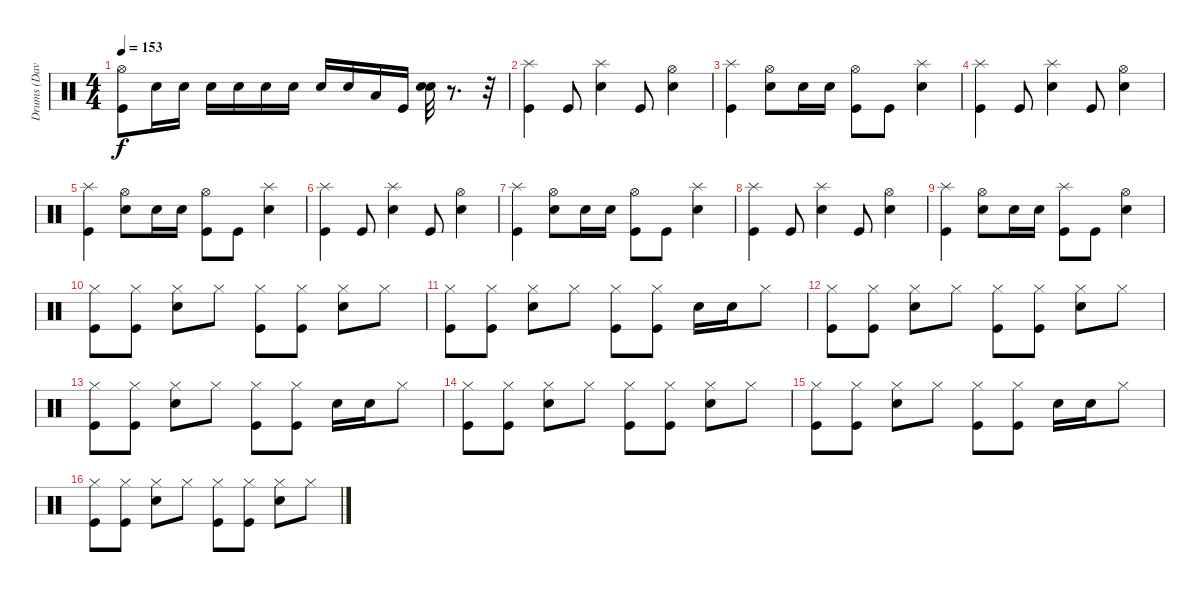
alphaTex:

\track ("Drums (Dave)" "Drums (Dav") {instrument percussion}
\staff {score}
\articulation defaults
\ts (4 4)
\tempo 153
\clef neutral
\ks c
("Hi-Hat (open)" "Kick (hit)").8{dy f} "Snare (hit) 2".16 "Snare (hit) 2".16 "Snare (hit) 2".16 "Snare (hit) 2".16 "Snare (hit) 2".16 "Snare (hit) 2".16 "Snare (hit) 2".16 "Snare (hit) 2".16 "Low Tom (hit)".16 "Kick (hit)".16 ("Snare (hit) 2" "Snare (hit) 2").32 r.8{d} r.32 |
("Splash (hit)" "Kick (hit)").4 "Kick (hit)".8 ("Splash (hit)" "Snare (hit) 2").4 "Kick (hit)".8 ("Hi-Hat (open)" "Snare (hit) 2").4 |
("Splash (hit)" "Kick (hit)").4 ("Hi-Hat (open)" "Snare (hit) 2").8 "Snare (hit) 2".16 "Snare (hit) 2".16 ("Hi-Hat (open)" "Kick (hit)").8 "Kick (hit)".8 ("Splash (hit)" "Snare (hit) 2").4 |
("Splash (hit)" "Kick (hit)").4 "Kick (hit)".8 ("Splash (hit)" "Snare (hit) 2").4 "Kick (hit)".8 ("Hi-Hat (open)" "Snare (hit) 2").4 |
("Splash (hit)" "Kick (hit)").4 ("Hi-Hat (open)" "Snare (hit) 2").8 "Snare (hit) 2".16 "Snare (hit) 2".16 ("Hi-Hat (open)" "Kick (hit)").8 "Kick (hit)".8 ("Splash (hit)" "Snare (hit) 2").4 |
("Splash (hit)" "Kick (hit)").4 "Kick (hit)".8 ("Splash (hit)" "Snare (hit) 2").4 "Kick (hit)".8 ("Hi-Hat (open)" "Snare (hit) 2").4 |
("Splash (hit)" "Kick (hit)").4 ("Hi-Hat (open)" "Snare (hit) 2").8 "Snare (hit) 2".16 "Snare (hit) 2".16 ("Hi-Hat (open)" "Kick (hit)").8 "Kick (hit)".8 ("Splash (hit)" "Snare (hit) 2").4 |
("Splash (hit)" "Kick (hit)").4 "Kick (hit)".8 ("Splash (hit)" "Snare (hit) 2").4 "Kick (hit)".8 ("Hi-Hat (open)" "Snare (hit) 2").4 |
("Splash (hit)" "Kick (hit)").4 ("Hi-Hat (open)" "Snare (hit) 2").8 "Snare (hit) 2".16 "Snare (hit) 2".16 ("Splash (hit)" "Kick (hit)").8 "Kick (hit)".8 ("Hi-Hat (open)" "Snare (hit) 2").4 |
("Hi-Hat (closed)" "Kick (hit)").8 ("Hi-Hat (closed)" "Kick (hit)").8 ("Hi-Hat (closed)" "Snare (hit) 2").8 "Hi-Hat (closed)".8 ("Hi-Hat (closed)" "Kick (hit)").8 ("Hi-Hat (closed)" "Kick (hit)").8 ("Hi-Hat (closed)" "Snare (hit) 2").8 "Hi-Hat (closed)".8 |
("Hi-Hat (closed)" "Kick (hit)").8 ("Hi-Hat (closed)" "Kick (hit)").8 ("Hi-Hat (closed)" "Snare (hit) 2").8 "Hi-Hat (closed)".8 ("Hi-Hat (closed)" "Kick (hit)").8 ("Hi-Hat (closed)" "Kick (hit)").8 "Snare (hit) 2".16 "Snare (hit) 2".16 "Hi-Hat (closed)".8 |
("Hi-Hat (closed)" "Kick (hit)").8 ("Hi-Hat (closed)" "Kick (hit)").8 ("Hi-Hat (closed)" "Snare (hit) 2").8 "Hi-Hat (closed)".8 ("Hi-Hat (closed)" "Kick (hit)").8 ("Hi-Hat (closed)" "Kick (hit)").8 ("Hi-Hat (closed)" "Snare (hit) 2").8 "Hi-Hat (closed)".8 |
("Hi-Hat (closed)" "Kick (hit)").8 ("Hi-Hat (closed)" "Kick (hit)").8 ("Hi-Hat (closed)" "Snare (hit) 2").8 "Hi-Hat (closed)".8 ("Hi-Hat (closed)" "Kick (hit)").8 ("Hi-Hat (closed)" "Kick (hit)").8 "Snare (hit) 2".16 "Snare (hit) 2".16 "Hi-Hat (closed)".8 |
("Hi-Hat (closed)" "Kick (hit)").8 ("Hi-Hat (closed)" "Kick (hit)").8 ("Hi-Hat (closed)" "Snare (hit) 2").8 "Hi-Hat (closed)".8 ("Hi-Hat (closed)" "Kick (hit)").8 ("Hi-Hat (closed)" "Kick (hit)").8 ("Hi-Hat (closed)" "Snare (hit) 2").8 "Hi-Hat (closed)".8 |
("Hi-Hat (closed)" "Kick (hit)").8 ("Hi-Hat (closed)" "Kick (hit)").8 ("Hi-Hat (closed)" "Snare (hit) 2").8 "Hi-Hat (closed)".8 ("Hi-Hat (closed)" "Kick (hit)").8 ("Hi-Hat (closed)" "Kick (hit)").8 "Snare (hit) 2".16 "Snare (hit) 2".16 "Hi-Hat (closed)".8 |
("Hi-Hat (closed)" "Kick (hit)").8 ("Hi-Hat (closed)" "Kick (hit)").8 ("Hi-Hat (closed)" "Snare (hit) 2").8 "Hi-Hat (closed)".8 ("Hi-Hat (closed)" "Kick (hit)").8 ("Hi-Hat (closed)" "Kick (hit)").8 ("Hi-Hat (closed)" "Snare (hit) 2").8 "Hi-Hat (closed)".8
